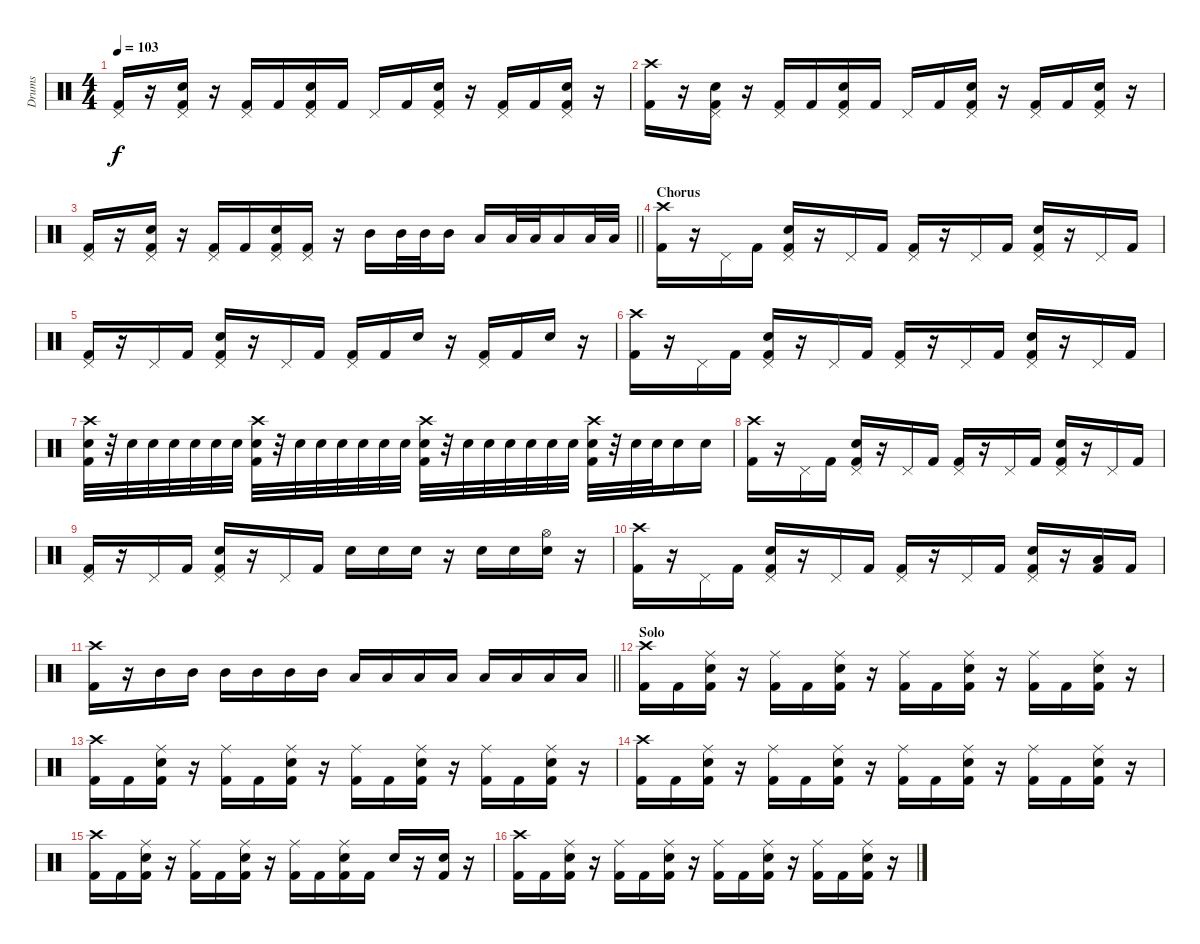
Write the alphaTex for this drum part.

\track ("Drums" "Drums") {instrument percussion}
\staff {score}
\articulation defaults
\ts (4 4)
\tempo 103
\clef neutral
\ks c
("Pedal Hi-Hat (hit)" "Kick (hit) 2").16{dy f} r.16 ("Pedal Hi-Hat (hit)" "Snare (hit) 2" "Kick (hit) 2").16 r.16 ("Pedal Hi-Hat (hit)" "Kick (hit) 2").16 "Kick (hit) 2".16 ("Pedal Hi-Hat (hit)" "Snare (hit) 2" "Kick (hit) 2").16 "Kick (hit) 2".16 "Pedal Hi-Hat (hit)".16 "Kick (hit) 2".16 ("Pedal Hi-Hat (hit)" "Snare (hit) 2" "Kick (hit) 2").16 r.16 ("Pedal Hi-Hat (hit)" "Kick (hit) 2").16 "Kick (hit) 2".16 ("Pedal Hi-Hat (hit)" "Snare (hit) 2" "Kick (hit) 2").16 r.16 |
("Crash high (hit)" "Kick (hit) 2").16 r.16 ("Pedal Hi-Hat (hit)" "Snare (hit) 2" "Kick (hit) 2").16 r.16 ("Pedal Hi-Hat (hit)" "Kick (hit) 2").16 "Kick (hit) 2".16 ("Pedal Hi-Hat (hit)" "Snare (hit) 2" "Kick (hit) 2").16 "Kick (hit) 2".16 "Pedal Hi-Hat (hit)".16 "Kick (hit) 2".16 ("Pedal Hi-Hat (hit)" "Snare (hit) 2" "Kick (hit) 2").16 r.16 ("Pedal Hi-Hat (hit)" "Kick (hit) 2").16 "Kick (hit) 2".16 ("Pedal Hi-Hat (hit)" "Snare (hit) 2" "Kick (hit) 2").16 r.16 |
\barLineRight lightlight
("Pedal Hi-Hat (hit)" "Kick (hit) 2").16 r.16 ("Pedal Hi-Hat (hit)" "Snare (hit) 2" "Kick (hit) 2").16 r.16 ("Pedal Hi-Hat (hit)" "Kick (hit) 2").16 "Kick (hit) 2".16 ("Pedal Hi-Hat (hit)" "Snare (hit) 2" "Kick (hit) 2").16 ("Pedal Hi-Hat (hit)" "Kick (hit) 2").16 r.16 "Mid Tom (hit)".16 "Mid Tom (hit)".32 "Mid Tom (hit)".32 "Mid Tom (hit)".16 "Low Tom (hit)".16 "Low Tom (hit)".32 "Low Tom (hit)".32 "Low Tom (hit)".16 "Low Tom (hit)".32 "Low Tom (hit)".32 |
\section ("" "Chorus")
("Crash high (hit)" "Kick (hit) 2").16 r.16 "Pedal Hi-Hat (hit)".16 "Kick (hit) 2".16 ("Pedal Hi-Hat (hit)" "Snare (hit) 2" "Kick (hit) 2").16 r.16 "Pedal Hi-Hat (hit)".16 "Kick (hit) 2".16 ("Pedal Hi-Hat (hit)" "Kick (hit) 2").16 r.16 "Pedal Hi-Hat (hit)".16 "Kick (hit) 2".16 ("Pedal Hi-Hat (hit)" "Snare (hit) 2" "Kick (hit) 2").16 r.16 "Pedal Hi-Hat (hit)".16 "Kick (hit) 2".16 |
("Pedal Hi-Hat (hit)" "Kick (hit) 2").16 r.16 "Pedal Hi-Hat (hit)".16 "Kick (hit) 2".16 ("Pedal Hi-Hat (hit)" "Snare (hit) 2" "Kick (hit) 2").16 r.16 "Pedal Hi-Hat (hit)".16 "Kick (hit) 2".16 ("Pedal Hi-Hat (hit)" "Kick (hit) 2").16 "Kick (hit) 2".16 "Snare (hit) 2".16 r.16 ("Pedal Hi-Hat (hit)" "Kick (hit) 2").16 "Kick (hit) 2".16 "Snare (hit) 2".16 r.16 |
("Crash high (hit)" "Kick (hit) 2").16 r.16 "Pedal Hi-Hat (hit)".16 "Kick (hit) 2".16 ("Pedal Hi-Hat (hit)" "Snare (hit) 2" "Kick (hit) 2").16 r.16 "Pedal Hi-Hat (hit)".16 "Kick (hit) 2".16 ("Pedal Hi-Hat (hit)" "Kick (hit) 2").16 r.16 "Pedal Hi-Hat (hit)".16 "Kick (hit) 2".16 ("Pedal Hi-Hat (hit)" "Snare (hit) 2" "Kick (hit) 2").16 r.16 "Pedal Hi-Hat (hit)".16 "Kick (hit) 2".16 |
("Crash high (hit)" "Snare (hit) 2" "Kick (hit) 2").32 r.32 "Snare (hit) 2".32 "Snare (hit) 2".32 "Snare (hit) 2".32 "Snare (hit) 2".32 "Snare (hit) 2".32 "Snare (hit) 2".32 ("Crash high (hit)" "Snare (hit) 2" "Kick (hit) 2").32 r.32 "Snare (hit) 2".32 "Snare (hit) 2".32 "Snare (hit) 2".32 "Snare (hit) 2".32 "Snare (hit) 2".32 "Snare (hit) 2".32 ("Crash high (hit)" "Snare (hit) 2" "Kick (hit) 2").32 r.32 "Snare (hit) 2".32 "Snare (hit) 2".32 "Snare (hit) 2".32 "Snare (hit) 2".32 "Snare (hit) 2".32 "Snare (hit) 2".32 ("Crash high (hit)" "Snare (hit) 2" "Kick (hit) 2").32 r.32 "Snare (hit) 2".32 "Snare (hit) 2".32 "Snare (hit) 2".16 "Snare (hit) 2".16 |
("Crash high (hit)" "Kick (hit) 2").16 r.16 "Pedal Hi-Hat (hit)".16 "Kick (hit) 2".16 ("Pedal Hi-Hat (hit)" "Snare (hit) 2" "Kick (hit) 2").16 r.16 "Pedal Hi-Hat (hit)".16 "Kick (hit) 2".16 ("Pedal Hi-Hat (hit)" "Kick (hit) 2").16 r.16 "Pedal Hi-Hat (hit)".16 "Kick (hit) 2".16 ("Pedal Hi-Hat (hit)" "Snare (hit) 2" "Kick (hit) 2").16 r.16 "Pedal Hi-Hat (hit)".16 "Kick (hit) 2".16 |
("Pedal Hi-Hat (hit)" "Kick (hit) 2").16 r.16 "Pedal Hi-Hat (hit)".16 "Kick (hit) 2".16 ("Pedal Hi-Hat (hit)" "Snare (hit) 2" "Kick (hit) 2").16 r.16 "Pedal Hi-Hat (hit)".16 "Kick (hit) 2".16 "Snare (hit) 2".16 "Snare (hit) 2".16 "Snare (hit) 2".16 r.16 "Snare (hit) 2".16 "Snare (hit) 2".16 ("Hi-Hat (open)" "Snare (hit) 2").16 r.16 |
("Crash high (hit)" "Kick (hit) 2").16 r.16 "Pedal Hi-Hat (hit)".16 "Kick (hit) 2".16 ("Pedal Hi-Hat (hit)" "Snare (hit) 2" "Kick (hit) 2").16 r.16 "Pedal Hi-Hat (hit)".16 "Kick (hit) 2".16 ("Pedal Hi-Hat (hit)" "Kick (hit) 2").16 r.16 "Pedal Hi-Hat (hit)".16 "Kick (hit) 2".16 ("Pedal Hi-Hat (hit)" "Snare (hit) 2" "Kick (hit) 2").16 r.16 ("Low Tom (hit)" "Kick (hit) 2").16 "Kick (hit) 2".16 |
\barLineRight lightlight
("Crash high (hit)" "Kick (hit) 2").16 r.16 "Mid Tom (hit)".16 "Mid Tom (hit)".16 "Mid Tom (hit)".16 "Mid Tom (hit)".16 "Mid Tom (hit)".16 "Mid Tom (hit)".16 "Low Tom (hit)".16 "Low Tom (hit)".16 "Low Tom (hit)".16 "Low Tom (hit)".16 "Low Tom (hit)".16 "Low Tom (hit)".16 "Low Tom (hit)".16 "Low Tom (hit)".16 |
\section ("" "Solo")
("Crash high (hit)" "Kick (hit) 2").16 "Kick (hit) 2".16 ("Ride (middle)" "Snare (hit) 2" "Kick (hit) 2").16 r.16 ("Ride (middle)" "Kick (hit) 2").16 "Kick (hit) 2".16 ("Ride (middle)" "Snare (hit) 2" "Kick (hit) 2").16 r.16 ("Ride (middle)" "Kick (hit) 2").16 "Kick (hit) 2".16 ("Ride (middle)" "Snare (hit) 2" "Kick (hit) 2").16 r.16 ("Ride (middle)" "Kick (hit) 2").16 "Kick (hit) 2".16 ("Ride (middle)" "Snare (hit) 2" "Kick (hit) 2").16 r.16 |
("Crash high (hit)" "Kick (hit) 2").16 "Kick (hit) 2".16 ("Ride (middle)" "Snare (hit) 2" "Kick (hit) 2").16 r.16 ("Ride (middle)" "Kick (hit) 2").16 "Kick (hit) 2".16 ("Ride (middle)" "Snare (hit) 2" "Kick (hit) 2").16 r.16 ("Ride (middle)" "Kick (hit) 2").16 "Kick (hit) 2".16 ("Ride (middle)" "Snare (hit) 2" "Kick (hit) 2").16 r.16 ("Ride (middle)" "Kick (hit) 2").16 "Kick (hit) 2".16 ("Ride (middle)" "Snare (hit) 2" "Kick (hit) 2").16 r.16 |
("Crash high (hit)" "Kick (hit) 2").16 "Kick (hit) 2".16 ("Ride (middle)" "Snare (hit) 2" "Kick (hit) 2").16 r.16 ("Ride (middle)" "Kick (hit) 2").16 "Kick (hit) 2".16 ("Ride (middle)" "Snare (hit) 2" "Kick (hit) 2").16 r.16 ("Ride (middle)" "Kick (hit) 2").16 "Kick (hit) 2".16 ("Ride (middle)" "Snare (hit) 2" "Kick (hit) 2").16 r.16 ("Ride (middle)" "Kick (hit) 2").16 "Kick (hit) 2".16 ("Ride (middle)" "Snare (hit) 2" "Kick (hit) 2").16 r.16 |
("Crash high (hit)" "Kick (hit) 2").16 "Kick (hit) 2".16 ("Ride (middle)" "Snare (hit) 2" "Kick (hit) 2").16 r.16 ("Ride (middle)" "Kick (hit) 2").16 "Kick (hit) 2".16 ("Ride (middle)" "Snare (hit) 2" "Kick (hit) 2").16 r.16 ("Ride (middle)" "Kick (hit) 2").16 "Kick (hit) 2".16 ("Ride (middle)" "Snare (hit) 2" "Kick (hit) 2").16 "Kick (hit) 2".16 "Snare (hit) 2".16 r.16 ("Snare (hit) 2" "Kick (hit) 2").16 r.16 |
("Crash high (hit)" "Kick (hit) 2").16 "Kick (hit) 2".16 ("Ride (middle)" "Snare (hit) 2" "Kick (hit) 2").16 r.16 ("Ride (middle)" "Kick (hit) 2").16 "Kick (hit) 2".16 ("Ride (middle)" "Snare (hit) 2" "Kick (hit) 2").16 r.16 ("Ride (middle)" "Kick (hit) 2").16 "Kick (hit) 2".16 ("Ride (middle)" "Snare (hit) 2" "Kick (hit) 2").16 r.16 ("Ride (middle)" "Kick (hit) 2").16 "Kick (hit) 2".16 ("Ride (middle)" "Snare (hit) 2" "Kick (hit) 2").16 r.16
